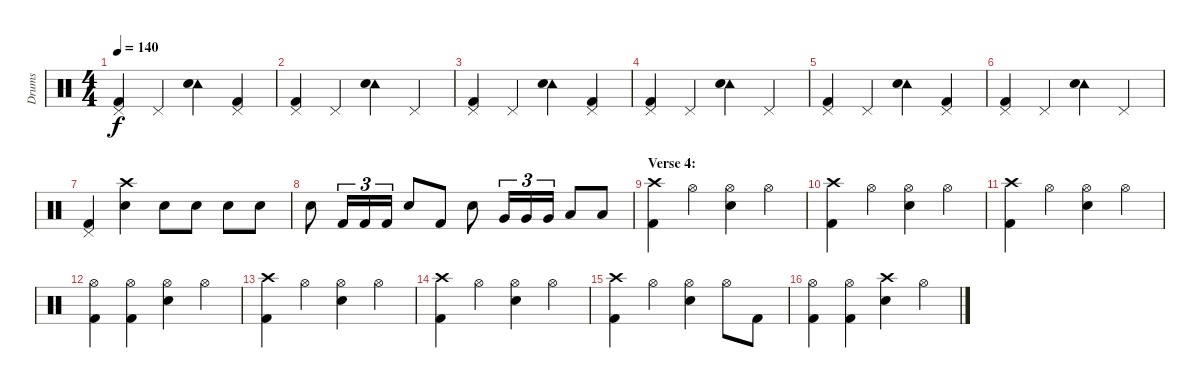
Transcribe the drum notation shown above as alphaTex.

\track ("Drums" "Drums") {instrument percussion}
\staff {score}
\articulation defaults
\ts (4 4)
\tempo 140
\clef neutral
\ks c
("Pedal Hi-Hat (hit)" "Kick (hit) 2").4{dy f} "Pedal Hi-Hat (hit)".4 ("Tambourine (hit)" "Electric Snare (hit)").4 ("Pedal Hi-Hat (hit)" "Kick (hit) 2").4 |
("Pedal Hi-Hat (hit)" "Kick (hit) 2").4 "Pedal Hi-Hat (hit)".4 ("Tambourine (hit)" "Electric Snare (hit)").4 "Pedal Hi-Hat (hit)".4 |
("Pedal Hi-Hat (hit)" "Kick (hit) 2").4 "Pedal Hi-Hat (hit)".4 ("Tambourine (hit)" "Electric Snare (hit)").4 ("Pedal Hi-Hat (hit)" "Kick (hit) 2").4 |
("Pedal Hi-Hat (hit)" "Kick (hit) 2").4 "Pedal Hi-Hat (hit)".4 ("Tambourine (hit)" "Electric Snare (hit)").4 "Pedal Hi-Hat (hit)".4 |
("Pedal Hi-Hat (hit)" "Kick (hit) 2").4 "Pedal Hi-Hat (hit)".4 ("Tambourine (hit)" "Electric Snare (hit)").4 ("Pedal Hi-Hat (hit)" "Kick (hit) 2").4 |
("Pedal Hi-Hat (hit)" "Kick (hit) 2").4 "Pedal Hi-Hat (hit)".4 ("Tambourine (hit)" "Electric Snare (hit)").4 "Pedal Hi-Hat (hit)".4 |
("Pedal Hi-Hat (hit)" "Kick (hit) 2").4 ("Crash high (hit)" "Electric Snare (hit)").4 "Electric Snare (hit)".8 "Electric Snare (hit)".8 "Electric Snare (hit)".8 "Electric Snare (hit)".8 |
"Electric Snare (hit)".8 "Kick (hit) 2".16{tu (3 2)} "Kick (hit) 2".16{tu (3 2)} "Kick (hit) 2".16{tu (3 2)} "Electric Snare (hit)".8 "Kick (hit) 2".8 "Electric Snare (hit)".8 "Very Low Tom (hit)".16{tu (3 2)} "Very Low Tom (hit)".16{tu (3 2)} "Very Low Tom (hit)".16{tu (3 2)} "Low Tom (hit)".8 "Low Tom (hit)".8 |
\section ("" "Verse 4:")
("Crash high (hit)" "Kick (hit) 2").4 "Hi-Hat (open)".4 ("Hi-Hat (open)" "Electric Snare (hit)").4 "Hi-Hat (open)".4 |
("Crash high (hit)" "Kick (hit) 2").4 "Hi-Hat (open)".4 ("Hi-Hat (open)" "Electric Snare (hit)").4 "Hi-Hat (open)".4 |
("Crash high (hit)" "Kick (hit) 2").4 "Hi-Hat (open)".4 ("Hi-Hat (open)" "Electric Snare (hit)").4 "Hi-Hat (open)".4 |
("Hi-Hat (open)" "Kick (hit) 2").4 ("Hi-Hat (open)" "Kick (hit) 2").4 ("Hi-Hat (open)" "Electric Snare (hit)").4 "Hi-Hat (open)".4 |
("Crash high (hit)" "Kick (hit) 2").4 "Hi-Hat (open)".4 ("Hi-Hat (open)" "Electric Snare (hit)").4 "Hi-Hat (open)".4 |
("Crash high (hit)" "Kick (hit) 2").4 "Hi-Hat (open)".4 ("Hi-Hat (open)" "Electric Snare (hit)").4 "Hi-Hat (open)".4 |
("Crash high (hit)" "Kick (hit) 2").4 "Hi-Hat (open)".4 ("Hi-Hat (open)" "Electric Snare (hit)").4 "Hi-Hat (open)".8 "Kick (hit) 2".8 |
("Hi-Hat (open)" "Kick (hit) 2").4 ("Hi-Hat (open)" "Kick (hit) 2").4 ("Crash high (hit)" "Electric Snare (hit)").4 "Hi-Hat (open)".4
